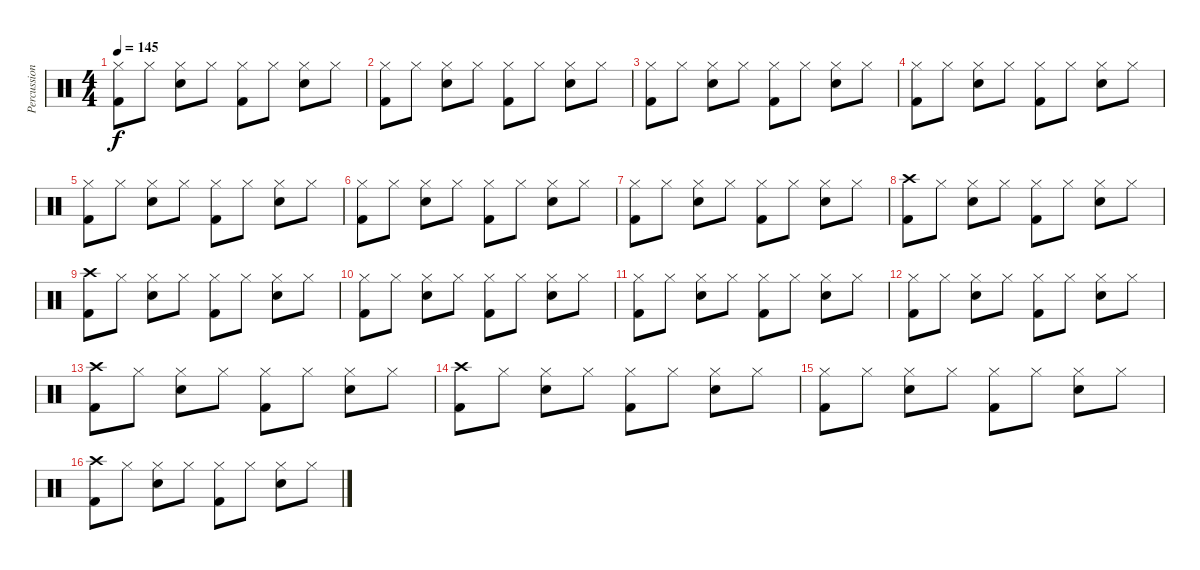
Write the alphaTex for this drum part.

\track ("Percussion" "Percussion") {instrument percussion}
\staff {score}
\articulation defaults
\ts (4 4)
\tempo 145
\clef neutral
\ks c
("Hi-Hat (closed)" "Kick (hit) 2").8{dy f} "Hi-Hat (closed)".8 ("Hi-Hat (closed)" "Snare (hit) 2").8 "Hi-Hat (closed)".8 ("Hi-Hat (closed)" "Kick (hit) 2").8 "Hi-Hat (closed)".8 ("Hi-Hat (closed)" "Snare (hit) 2").8 "Hi-Hat (closed)".8 |
("Hi-Hat (closed)" "Kick (hit) 2").8 "Hi-Hat (closed)".8 ("Hi-Hat (closed)" "Snare (hit) 2").8 "Hi-Hat (closed)".8 ("Hi-Hat (closed)" "Kick (hit) 2").8 "Hi-Hat (closed)".8 ("Hi-Hat (closed)" "Snare (hit) 2").8 "Hi-Hat (closed)".8 |
("Hi-Hat (closed)" "Kick (hit) 2").8 "Hi-Hat (closed)".8 ("Hi-Hat (closed)" "Snare (hit) 2").8 "Hi-Hat (closed)".8 ("Hi-Hat (closed)" "Kick (hit) 2").8 "Hi-Hat (closed)".8 ("Hi-Hat (closed)" "Snare (hit) 2").8 "Hi-Hat (closed)".8 |
("Hi-Hat (closed)" "Kick (hit) 2").8 "Hi-Hat (closed)".8 ("Hi-Hat (closed)" "Snare (hit) 2").8 "Hi-Hat (closed)".8 ("Hi-Hat (closed)" "Kick (hit) 2").8 "Hi-Hat (closed)".8 ("Hi-Hat (closed)" "Snare (hit) 2").8 "Hi-Hat (closed)".8 |
("Hi-Hat (closed)" "Kick (hit) 2").8 "Hi-Hat (closed)".8 ("Hi-Hat (closed)" "Snare (hit) 2").8 "Hi-Hat (closed)".8 ("Hi-Hat (closed)" "Kick (hit) 2").8 "Hi-Hat (closed)".8 ("Hi-Hat (closed)" "Snare (hit) 2").8 "Hi-Hat (closed)".8 |
("Hi-Hat (closed)" "Kick (hit) 2").8 "Hi-Hat (closed)".8 ("Hi-Hat (closed)" "Snare (hit) 2").8 "Hi-Hat (closed)".8 ("Hi-Hat (closed)" "Kick (hit) 2").8 "Hi-Hat (closed)".8 ("Hi-Hat (closed)" "Snare (hit) 2").8 "Hi-Hat (closed)".8 |
("Hi-Hat (closed)" "Kick (hit) 2").8 "Hi-Hat (closed)".8 ("Hi-Hat (closed)" "Snare (hit) 2").8 "Hi-Hat (closed)".8 ("Hi-Hat (closed)" "Kick (hit) 2").8 "Hi-Hat (closed)".8 ("Hi-Hat (closed)" "Snare (hit) 2").8 "Hi-Hat (closed)".8 |
("Crash high (hit)" "Kick (hit) 2").8 "Hi-Hat (closed)".8 ("Hi-Hat (closed)" "Snare (hit) 2").8 "Hi-Hat (closed)".8 ("Hi-Hat (closed)" "Kick (hit) 2").8 "Hi-Hat (closed)".8 ("Hi-Hat (closed)" "Snare (hit) 2").8 "Hi-Hat (closed)".8 |
("Crash high (hit)" "Kick (hit) 2").8 "Hi-Hat (closed)".8 ("Hi-Hat (closed)" "Snare (hit) 2").8 "Hi-Hat (closed)".8 ("Hi-Hat (closed)" "Kick (hit) 2").8 "Hi-Hat (closed)".8 ("Hi-Hat (closed)" "Snare (hit) 2").8 "Hi-Hat (closed)".8 |
("Hi-Hat (closed)" "Kick (hit) 2").8 "Hi-Hat (closed)".8 ("Hi-Hat (closed)" "Snare (hit) 2").8 "Hi-Hat (closed)".8 ("Hi-Hat (closed)" "Kick (hit) 2").8 "Hi-Hat (closed)".8 ("Hi-Hat (closed)" "Snare (hit) 2").8 "Hi-Hat (closed)".8 |
("Hi-Hat (closed)" "Kick (hit) 2").8 "Hi-Hat (closed)".8 ("Hi-Hat (closed)" "Snare (hit) 2").8 "Hi-Hat (closed)".8 ("Hi-Hat (closed)" "Kick (hit) 2").8 "Hi-Hat (closed)".8 ("Hi-Hat (closed)" "Snare (hit) 2").8 "Hi-Hat (closed)".8 |
("Hi-Hat (closed)" "Kick (hit) 2").8 "Hi-Hat (closed)".8 ("Hi-Hat (closed)" "Snare (hit) 2").8 "Hi-Hat (closed)".8 ("Hi-Hat (closed)" "Kick (hit) 2").8 "Hi-Hat (closed)".8 ("Hi-Hat (closed)" "Snare (hit) 2").8 "Hi-Hat (closed)".8 |
("Crash high (hit)" "Kick (hit) 2").8 "Hi-Hat (closed)".8 ("Hi-Hat (closed)" "Snare (hit) 2").8 "Hi-Hat (closed)".8 ("Hi-Hat (closed)" "Kick (hit) 2").8 "Hi-Hat (closed)".8 ("Hi-Hat (closed)" "Snare (hit) 2").8 "Hi-Hat (closed)".8 |
("Crash high (hit)" "Kick (hit) 2").8 "Hi-Hat (closed)".8 ("Hi-Hat (closed)" "Snare (hit) 2").8 "Hi-Hat (closed)".8 ("Hi-Hat (closed)" "Kick (hit) 2").8 "Hi-Hat (closed)".8 ("Hi-Hat (closed)" "Snare (hit) 2").8 "Hi-Hat (closed)".8 |
("Hi-Hat (closed)" "Kick (hit) 2").8 "Hi-Hat (closed)".8 ("Hi-Hat (closed)" "Snare (hit) 2").8 "Hi-Hat (closed)".8 ("Hi-Hat (closed)" "Kick (hit) 2").8 "Hi-Hat (closed)".8 ("Hi-Hat (closed)" "Snare (hit) 2").8 "Hi-Hat (closed)".8 |
("Crash high (hit)" "Kick (hit) 2").8 "Hi-Hat (closed)".8 ("Hi-Hat (closed)" "Snare (hit) 2").8 "Hi-Hat (closed)".8 ("Hi-Hat (closed)" "Kick (hit) 2").8 "Hi-Hat (closed)".8 ("Hi-Hat (closed)" "Snare (hit) 2").8 "Hi-Hat (closed)".8
